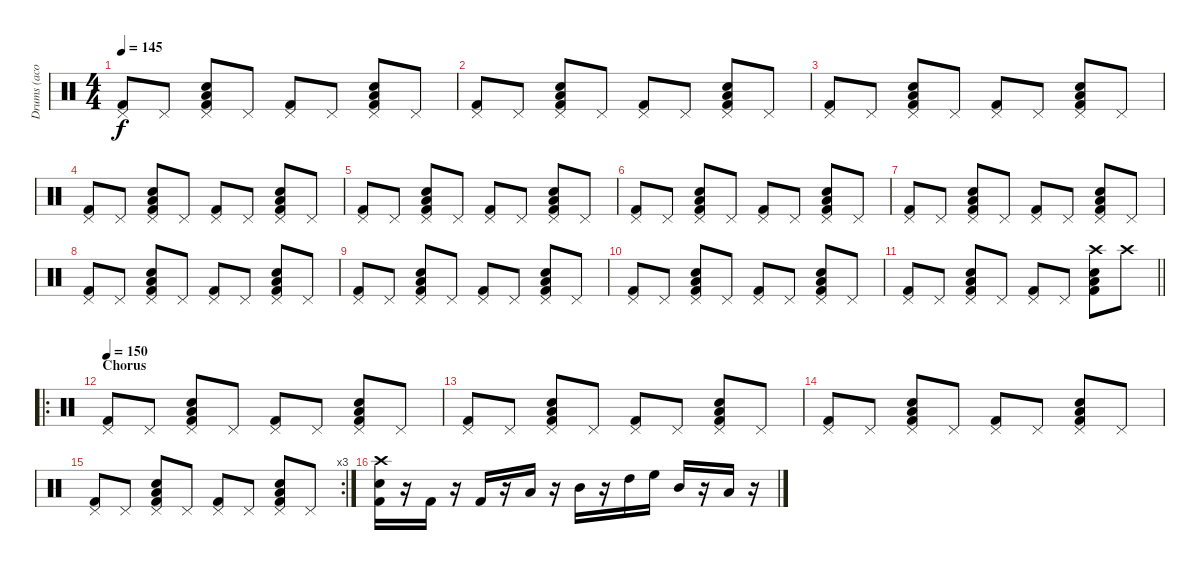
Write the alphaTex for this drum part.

\track ("Drums (acoustic drumset)" "Drums (aco") {instrument percussion}
\staff {score}
\articulation defaults
\ts (4 4)
\tempo 145
\clef neutral
\ks c
("Pedal Hi-Hat (hit)" "Kick (hit) 2").8{dy f} "Pedal Hi-Hat (hit)".8 ("Pedal Hi-Hat (hit)" "Low Floor Tom (hit)" "Electric Snare (hit)" "Kick (hit) 2").8 "Pedal Hi-Hat (hit)".8 ("Pedal Hi-Hat (hit)" "Kick (hit) 2").8 "Pedal Hi-Hat (hit)".8 ("Pedal Hi-Hat (hit)" "Low Floor Tom (hit)" "Electric Snare (hit)" "Kick (hit) 2").8 "Pedal Hi-Hat (hit)".8 |
("Pedal Hi-Hat (hit)" "Kick (hit) 2").8 "Pedal Hi-Hat (hit)".8 ("Pedal Hi-Hat (hit)" "Low Floor Tom (hit)" "Electric Snare (hit)" "Kick (hit) 2").8 "Pedal Hi-Hat (hit)".8 ("Pedal Hi-Hat (hit)" "Kick (hit) 2").8 "Pedal Hi-Hat (hit)".8 ("Pedal Hi-Hat (hit)" "Low Floor Tom (hit)" "Electric Snare (hit)" "Kick (hit) 2").8 "Pedal Hi-Hat (hit)".8 |
("Pedal Hi-Hat (hit)" "Kick (hit) 2").8 "Pedal Hi-Hat (hit)".8 ("Pedal Hi-Hat (hit)" "Low Floor Tom (hit)" "Electric Snare (hit)" "Kick (hit) 2").8 "Pedal Hi-Hat (hit)".8 ("Pedal Hi-Hat (hit)" "Kick (hit) 2").8 "Pedal Hi-Hat (hit)".8 ("Pedal Hi-Hat (hit)" "Low Floor Tom (hit)" "Electric Snare (hit)" "Kick (hit) 2").8 "Pedal Hi-Hat (hit)".8 |
("Pedal Hi-Hat (hit)" "Kick (hit) 2").8 "Pedal Hi-Hat (hit)".8 ("Pedal Hi-Hat (hit)" "Low Floor Tom (hit)" "Electric Snare (hit)" "Kick (hit) 2").8 "Pedal Hi-Hat (hit)".8 ("Pedal Hi-Hat (hit)" "Kick (hit) 2").8 "Pedal Hi-Hat (hit)".8 ("Pedal Hi-Hat (hit)" "Low Floor Tom (hit)" "Electric Snare (hit)" "Kick (hit) 2").8 "Pedal Hi-Hat (hit)".8 |
("Pedal Hi-Hat (hit)" "Kick (hit) 2").8 "Pedal Hi-Hat (hit)".8 ("Pedal Hi-Hat (hit)" "Low Floor Tom (hit)" "Electric Snare (hit)" "Kick (hit) 2").8 "Pedal Hi-Hat (hit)".8 ("Pedal Hi-Hat (hit)" "Kick (hit) 2").8 "Pedal Hi-Hat (hit)".8 ("Pedal Hi-Hat (hit)" "Low Floor Tom (hit)" "Electric Snare (hit)" "Kick (hit) 2").8 "Pedal Hi-Hat (hit)".8 |
("Pedal Hi-Hat (hit)" "Kick (hit) 2").8 "Pedal Hi-Hat (hit)".8 ("Pedal Hi-Hat (hit)" "Low Floor Tom (hit)" "Electric Snare (hit)" "Kick (hit) 2").8 "Pedal Hi-Hat (hit)".8 ("Pedal Hi-Hat (hit)" "Kick (hit) 2").8 "Pedal Hi-Hat (hit)".8 ("Pedal Hi-Hat (hit)" "Low Floor Tom (hit)" "Electric Snare (hit)" "Kick (hit) 2").8 "Pedal Hi-Hat (hit)".8 |
("Pedal Hi-Hat (hit)" "Kick (hit) 2").8 "Pedal Hi-Hat (hit)".8 ("Pedal Hi-Hat (hit)" "Low Floor Tom (hit)" "Electric Snare (hit)" "Kick (hit) 2").8 "Pedal Hi-Hat (hit)".8 ("Pedal Hi-Hat (hit)" "Kick (hit) 2").8 "Pedal Hi-Hat (hit)".8 ("Pedal Hi-Hat (hit)" "Low Floor Tom (hit)" "Electric Snare (hit)" "Kick (hit) 2").8 "Pedal Hi-Hat (hit)".8 |
("Pedal Hi-Hat (hit)" "Kick (hit) 2").8 "Pedal Hi-Hat (hit)".8 ("Pedal Hi-Hat (hit)" "Low Floor Tom (hit)" "Electric Snare (hit)" "Kick (hit) 2").8 "Pedal Hi-Hat (hit)".8 ("Pedal Hi-Hat (hit)" "Kick (hit) 2").8 "Pedal Hi-Hat (hit)".8 ("Pedal Hi-Hat (hit)" "Low Floor Tom (hit)" "Electric Snare (hit)" "Kick (hit) 2").8 "Pedal Hi-Hat (hit)".8 |
("Pedal Hi-Hat (hit)" "Kick (hit) 2").8 "Pedal Hi-Hat (hit)".8 ("Pedal Hi-Hat (hit)" "Low Floor Tom (hit)" "Electric Snare (hit)" "Kick (hit) 2").8 "Pedal Hi-Hat (hit)".8 ("Pedal Hi-Hat (hit)" "Kick (hit) 2").8 "Pedal Hi-Hat (hit)".8 ("Pedal Hi-Hat (hit)" "Low Floor Tom (hit)" "Electric Snare (hit)" "Kick (hit) 2").8 "Pedal Hi-Hat (hit)".8 |
("Pedal Hi-Hat (hit)" "Kick (hit) 2").8 "Pedal Hi-Hat (hit)".8 ("Pedal Hi-Hat (hit)" "Low Floor Tom (hit)" "Electric Snare (hit)" "Kick (hit) 2").8 "Pedal Hi-Hat (hit)".8 ("Pedal Hi-Hat (hit)" "Kick (hit) 2").8 "Pedal Hi-Hat (hit)".8 ("Pedal Hi-Hat (hit)" "Low Floor Tom (hit)" "Electric Snare (hit)" "Kick (hit) 2").8 "Pedal Hi-Hat (hit)".8 |
\barLineRight lightlight
("Pedal Hi-Hat (hit)" "Kick (hit) 2").8 "Pedal Hi-Hat (hit)".8 ("Pedal Hi-Hat (hit)" "Low Floor Tom (hit)" "Electric Snare (hit)" "Kick (hit) 2").8 "Pedal Hi-Hat (hit)".8 ("Pedal Hi-Hat (hit)" "Kick (hit) 2").8 "Pedal Hi-Hat (hit)".8 ("Crash high (hit)" "Low Floor Tom (hit)" "Electric Snare (hit)" "Kick (hit) 2").8 "Crash high (hit)".8 |
\ro
\section ("" "Chorus")
\tempo 150
("Pedal Hi-Hat (hit)" "Kick (hit) 2").8 "Pedal Hi-Hat (hit)".8 ("Pedal Hi-Hat (hit)" "Low Floor Tom (hit)" "Electric Snare (hit)" "Kick (hit) 2").8 "Pedal Hi-Hat (hit)".8 ("Pedal Hi-Hat (hit)" "Kick (hit) 2").8 "Pedal Hi-Hat (hit)".8 ("Pedal Hi-Hat (hit)" "Low Floor Tom (hit)" "Electric Snare (hit)" "Kick (hit) 2").8 "Pedal Hi-Hat (hit)".8 |
("Pedal Hi-Hat (hit)" "Kick (hit) 2").8 "Pedal Hi-Hat (hit)".8 ("Pedal Hi-Hat (hit)" "Low Floor Tom (hit)" "Electric Snare (hit)" "Kick (hit) 2").8 "Pedal Hi-Hat (hit)".8 ("Pedal Hi-Hat (hit)" "Kick (hit) 2").8 "Pedal Hi-Hat (hit)".8 ("Pedal Hi-Hat (hit)" "Low Floor Tom (hit)" "Electric Snare (hit)" "Kick (hit) 2").8 "Pedal Hi-Hat (hit)".8 |
("Pedal Hi-Hat (hit)" "Kick (hit) 2").8 "Pedal Hi-Hat (hit)".8 ("Pedal Hi-Hat (hit)" "Low Floor Tom (hit)" "Electric Snare (hit)" "Kick (hit) 2").8 "Pedal Hi-Hat (hit)".8 ("Pedal Hi-Hat (hit)" "Kick (hit) 2").8 "Pedal Hi-Hat (hit)".8 ("Pedal Hi-Hat (hit)" "Low Floor Tom (hit)" "Electric Snare (hit)" "Kick (hit) 2").8 "Pedal Hi-Hat (hit)".8 |
\rc 3
("Pedal Hi-Hat (hit)" "Kick (hit) 2").8 "Pedal Hi-Hat (hit)".8 ("Pedal Hi-Hat (hit)" "Low Floor Tom (hit)" "Electric Snare (hit)" "Kick (hit) 2").8 "Pedal Hi-Hat (hit)".8 ("Pedal Hi-Hat (hit)" "Kick (hit) 2").8 "Pedal Hi-Hat (hit)".8 ("Pedal Hi-Hat (hit)" "Low Floor Tom (hit)" "Electric Snare (hit)" "Kick (hit) 2").8 "Pedal Hi-Hat (hit)".8 |
("Crash high (hit)" "Electric Snare (hit)" "Kick (hit) 2").16 r.16 "Kick (hit) 2".16 r.16 "Kick (hit) 2".16 r.16 "Low Tom (hit)".16 r.16 "Mid Tom (hit)".16 r.16 "High Tom (hit)".16 "High Floor Tom (hit)".16 "Mid Tom (hit)".16 r.16 "Low Tom (hit)".16 r.16
